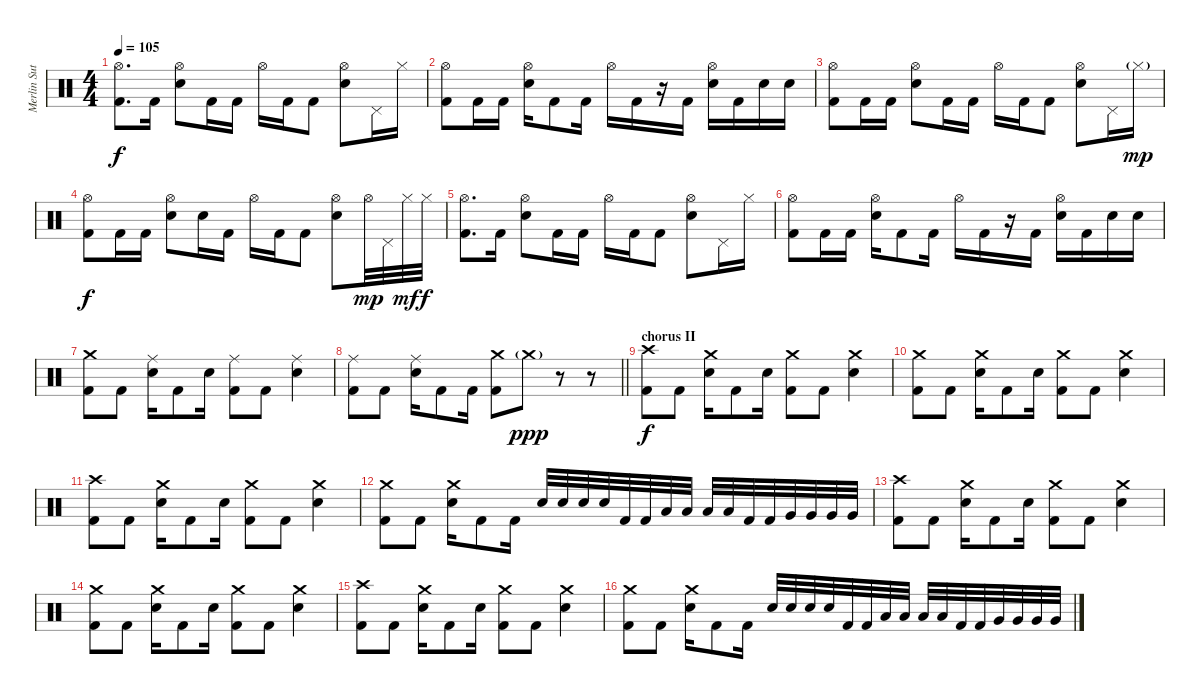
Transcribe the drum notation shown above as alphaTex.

\track ("Merlin Sutter" "Merlin Sut") {instrument percussion}
\staff {score}
\articulation defaults
\ts (4 4)
\tempo 105
\clef neutral
\ks c
("Hi-Hat (open)" "Kick (hit) 2").8{d dy f} "Kick (hit) 2".16 ("Hi-Hat (open)" "Electric Snare (hit)").8 "Kick (hit) 2".16 "Kick (hit) 2".16 "Hi-Hat (open)".16 "Kick (hit) 2".16 "Kick (hit) 2".8 ("Hi-Hat (open)" "Electric Snare (hit)").8 "Pedal Hi-Hat (hit)".16 "Hi-Hat (closed)".16 |
("Hi-Hat (open)" "Kick (hit) 2").8 "Kick (hit) 2".16 "Kick (hit) 2".16 ("Hi-Hat (open)" "Electric Snare (hit)").16 "Kick (hit) 2".8 "Kick (hit) 2".16 "Hi-Hat (open)".16 "Kick (hit) 2".16 r.16 "Kick (hit) 2".16 ("Hi-Hat (open)" "Electric Snare (hit)").16 "Kick (hit) 2".16 "Electric Snare (hit)".16 "Electric Snare (hit)".16 |
("Hi-Hat (open)" "Kick (hit) 2").8 "Kick (hit) 2".16 "Kick (hit) 2".16 ("Hi-Hat (open)" "Electric Snare (hit)").8 "Kick (hit) 2".16 "Kick (hit) 2".16 "Hi-Hat (open)".16 "Kick (hit) 2".16 "Kick (hit) 2".8 ("Hi-Hat (open)" "Electric Snare (hit)").8 "Pedal Hi-Hat (hit)".16 "Hi-Hat (closed)"{g}.16{dy mp} |
("Hi-Hat (open)" "Kick (hit) 2").8{dy f} "Kick (hit) 2".16 "Kick (hit) 2".16 ("Hi-Hat (open)" "Electric Snare (hit)").8 "Electric Snare (hit)".16 "Kick (hit) 2".16 "Hi-Hat (open)".16 "Kick (hit) 2".16 "Kick (hit) 2".8 ("Hi-Hat (open)" "Electric Snare (hit)").8 "Hi-Hat (open)".32{dy mp} "Pedal Hi-Hat (hit)".32 "Hi-Hat (closed)".32{dy mf} "Hi-Hat (closed)".32{dy f} |
("Hi-Hat (open)" "Kick (hit) 2").8{d} "Kick (hit) 2".16 ("Hi-Hat (open)" "Electric Snare (hit)").8 "Kick (hit) 2".16 "Kick (hit) 2".16 "Hi-Hat (open)".16 "Kick (hit) 2".16 "Kick (hit) 2".8 ("Hi-Hat (open)" "Electric Snare (hit)").8 "Pedal Hi-Hat (hit)".16 "Hi-Hat (closed)".16 |
("Hi-Hat (open)" "Kick (hit) 2").8 "Kick (hit) 2".16 "Kick (hit) 2".16 ("Hi-Hat (open)" "Electric Snare (hit)").16 "Kick (hit) 2".8 "Kick (hit) 2".16 "Hi-Hat (open)".16 "Kick (hit) 2".16 r.16 "Kick (hit) 2".16 ("Hi-Hat (open)" "Electric Snare (hit)").16 "Kick (hit) 2".16 "Electric Snare (hit)".16 "Electric Snare (hit)".16 |
("Crash medium (hit)" "Kick (hit) 2").8 "Kick (hit) 2".8 ("Ride (middle)" "Electric Snare (hit)").16 "Kick (hit) 2".8 "Electric Snare (hit)".16 ("Ride (middle)" "Kick (hit) 2").8 "Kick (hit) 2".8 ("Ride (middle)" "Electric Snare (hit)").4 |
\barLineRight lightlight
("Ride (middle)" "Kick (hit) 2").8 "Kick (hit) 2".8 ("Ride (middle)" "Electric Snare (hit)").16 "Kick (hit) 2".8 "Kick (hit) 2".16 ("Crash medium (hit)" "Kick (hit) 2").8 "Crash medium (hit)"{g}.8{dy ppp} r.8 r.8 |
\section ("" "chorus II")
("Crash high (hit)" "Kick (hit) 2").8{dy f} "Kick (hit) 2".8 ("Crash medium (hit)" "Electric Snare (hit)").16 "Kick (hit) 2".8 "Electric Snare (hit)".16 ("Crash medium (hit)" "Kick (hit) 2").8 "Kick (hit) 2".8 ("Crash medium (hit)" "Electric Snare (hit)").4 |
("Crash medium (hit)" "Kick (hit) 2").8 "Kick (hit) 2".8 ("Crash medium (hit)" "Electric Snare (hit)").16 "Kick (hit) 2".8 "Electric Snare (hit)".16 ("Crash medium (hit)" "Kick (hit) 2").8 "Kick (hit) 2".8 ("Crash medium (hit)" "Electric Snare (hit)").4 |
("Crash high (hit)" "Kick (hit) 2").8 "Kick (hit) 2".8 ("Crash medium (hit)" "Electric Snare (hit)").16 "Kick (hit) 2".8 "Electric Snare (hit)".16 ("Crash medium (hit)" "Kick (hit) 2").8 "Kick (hit) 2".8 ("Crash medium (hit)" "Electric Snare (hit)").4 |
("Crash medium (hit)" "Kick (hit) 2").8 "Kick (hit) 2".8 ("Crash medium (hit)" "Electric Snare (hit)").16 "Kick (hit) 2".8 "Kick (hit) 2".16 "Electric Snare (hit)".32 "Electric Snare (hit)".32 "Electric Snare (hit)".32 "Electric Snare (hit)".32 "Kick (hit) 2".32 "Kick (hit) 2".32 "Low Tom (hit)".32 "Low Tom (hit)".32 "Low Tom (hit)".32 "Low Tom (hit)".32 "Kick (hit) 2".32 "Kick (hit) 2".32 "Very Low Tom (hit)".32 "Very Low Tom (hit)".32 "Very Low Tom (hit)".32 "Very Low Tom (hit)".32 |
("Crash high (hit)" "Kick (hit) 2").8 "Kick (hit) 2".8 ("Crash medium (hit)" "Electric Snare (hit)").16 "Kick (hit) 2".8 "Electric Snare (hit)".16 ("Crash medium (hit)" "Kick (hit) 2").8 "Kick (hit) 2".8 ("Crash medium (hit)" "Electric Snare (hit)").4 |
("Crash medium (hit)" "Kick (hit) 2").8 "Kick (hit) 2".8 ("Crash medium (hit)" "Electric Snare (hit)").16 "Kick (hit) 2".8 "Electric Snare (hit)".16 ("Crash medium (hit)" "Kick (hit) 2").8 "Kick (hit) 2".8 ("Crash medium (hit)" "Electric Snare (hit)").4 |
("Crash high (hit)" "Kick (hit) 2").8 "Kick (hit) 2".8 ("Crash medium (hit)" "Electric Snare (hit)").16 "Kick (hit) 2".8 "Electric Snare (hit)".16 ("Crash medium (hit)" "Kick (hit) 2").8 "Kick (hit) 2".8 ("Crash medium (hit)" "Electric Snare (hit)").4 |
("Crash medium (hit)" "Kick (hit) 2").8 "Kick (hit) 2".8 ("Crash medium (hit)" "Electric Snare (hit)").16 "Kick (hit) 2".8 "Kick (hit) 2".16 "Electric Snare (hit)".32 "Electric Snare (hit)".32 "Electric Snare (hit)".32 "Electric Snare (hit)".32 "Kick (hit) 2".32 "Kick (hit) 2".32 "Low Tom (hit)".32 "Low Tom (hit)".32 "Low Tom (hit)".32 "Low Tom (hit)".32 "Kick (hit) 2".32 "Kick (hit) 2".32 "Very Low Tom (hit)".32 "Very Low Tom (hit)".32 "Very Low Tom (hit)".32 "Very Low Tom (hit)".32
